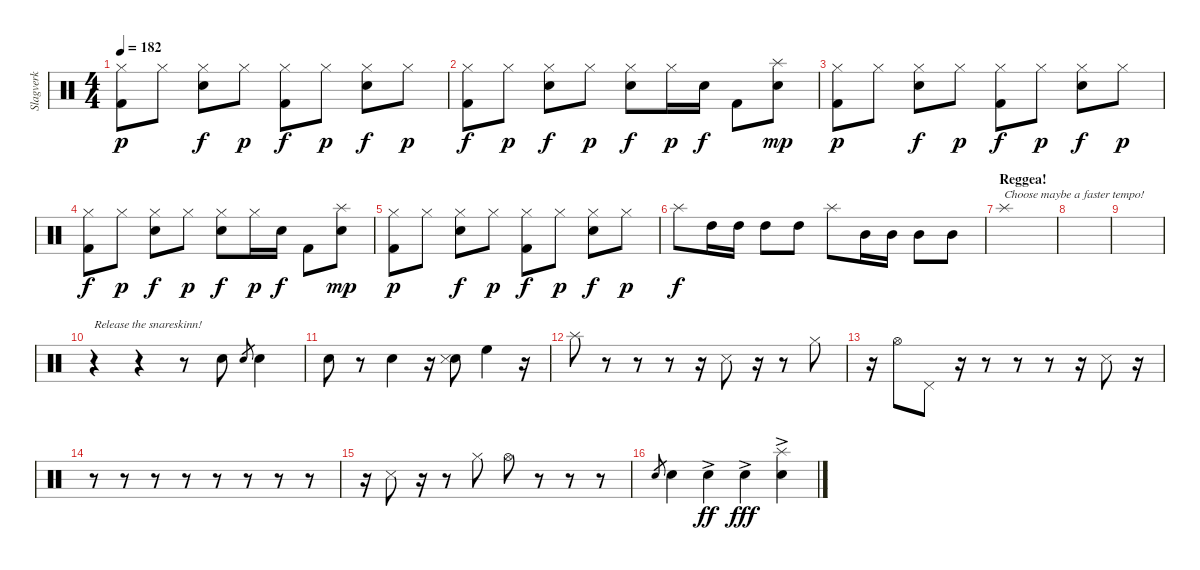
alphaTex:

\track ("Slagverk" "Slagverk") {instrument percussion}
\staff {score}
\articulation defaults
\ts (4 4)
\tempo 182
\clef neutral
\ks c
("Hi-Hat (closed)" "Kick (hit) 2").8{dy p} "Hi-Hat (closed)".8 ("Hi-Hat (closed)" "Electric Snare (hit)").8{dy f} "Hi-Hat (closed)".8{dy p} ("Hi-Hat (closed)" "Kick (hit) 2").8{dy f} "Hi-Hat (closed)".8{dy p} ("Hi-Hat (closed)" "Electric Snare (hit)").8{dy f} "Hi-Hat (closed)".8{dy p} |
("Hi-Hat (closed)" "Kick (hit) 2").8{dy f} "Hi-Hat (closed)".8{dy p} ("Hi-Hat (closed)" "Electric Snare (hit)").8{dy f} "Hi-Hat (closed)".8{dy p} ("Hi-Hat (closed)" "Electric Snare (hit)").8{dy f} "Hi-Hat (closed)".16{dy p} "Electric Snare (hit)".16{dy f} "Kick (hit) 2".8 ("Splash (hit)" "Electric Snare (hit)").8{dy mp} |
("Hi-Hat (closed)" "Kick (hit) 2").8{dy p} "Hi-Hat (closed)".8 ("Hi-Hat (closed)" "Electric Snare (hit)").8{dy f} "Hi-Hat (closed)".8{dy p} ("Hi-Hat (closed)" "Kick (hit) 2").8{dy f} "Hi-Hat (closed)".8{dy p} ("Hi-Hat (closed)" "Electric Snare (hit)").8{dy f} "Hi-Hat (closed)".8{dy p} |
("Hi-Hat (closed)" "Kick (hit) 2").8{dy f} "Hi-Hat (closed)".8{dy p} ("Hi-Hat (closed)" "Electric Snare (hit)").8{dy f} "Hi-Hat (closed)".8{dy p} ("Hi-Hat (closed)" "Electric Snare (hit)").8{dy f} "Hi-Hat (closed)".16{dy p} "Electric Snare (hit)".16{dy f} "Kick (hit) 2".8 ("Splash (hit)" "Electric Snare (hit)").8{dy mp} |
("Hi-Hat (closed)" "Kick (hit) 2").8{dy p} "Hi-Hat (closed)".8 ("Hi-Hat (closed)" "Electric Snare (hit)").8{dy f} "Hi-Hat (closed)".8{dy p} ("Hi-Hat (closed)" "Kick (hit) 2").8{dy f} "Hi-Hat (closed)".8{dy p} ("Hi-Hat (closed)" "Electric Snare (hit)").8{dy f} "Hi-Hat (closed)".8{dy p} |
"Splash (hit)".8{dy f} "High Tom (hit)".16 "High Tom (hit)".16 "High Tom (hit)".8 "High Tom (hit)".8 "Splash (hit)".8 "Mid Tom (hit)".16 "Mid Tom (hit)".16 "Mid Tom (hit)".8 "Mid Tom (hit)".8 |
\section ("" "Reggea!")
"Splash (hit)".1{txt "Choose maybe a faster tempo!"} |
|
|
r.4{txt "Release the snareskinn!"} r.4 r.8 "Electric Snare (hit)".8 "Electric Snare (hit)".8{gr} "Electric Snare (hit)".4 |
"Electric Snare (hit)".8 r.8 "Electric Snare (hit)".4 r.16 ("Electric Snare (hit)" "Snare (side stick) 3").8 "High Floor Tom (hit)".4 r.16 |
"Splash (hit)".8 r.8 r.8 r.8 r.16 "Snare (side stick) 3".8 r.16 r.8 "Hi-Hat (closed)".8 |
r.16 "Hi-Hat (open)".8 "Pedal Hi-Hat (hit)".8 r.16 r.8 r.8 r.8 r.16 "Snare (side stick) 3".8 r.16 |
r.8 r.8 r.8 r.8 r.8 r.8 r.8 r.8 |
r.16 "Snare (side stick) 3".8 r.16 r.8 "Hi-Hat (closed)".8 "Hi-Hat (open)".8 r.8 r.8 r.8 |
"Electric Snare (hit)".8{gr} "Electric Snare (hit)".4 "Electric Snare (hit)"{ac}.4{dy ff} "Electric Snare (hit)"{ac}.4{dy fff} ("Splash (hit)" "Electric Snare (hit)"{ac}).4
